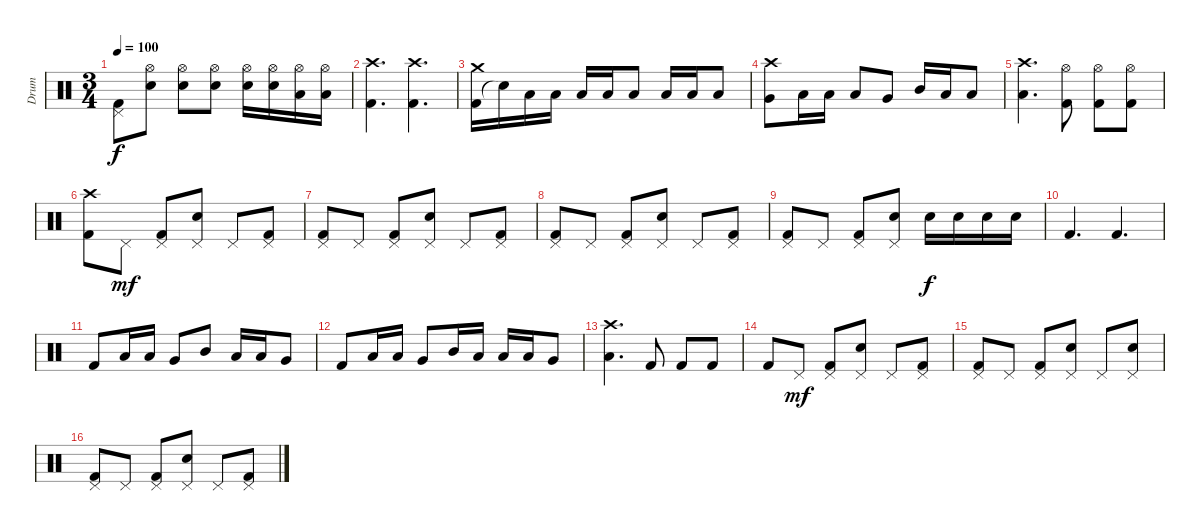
\track ("Drum" "Drum") {instrument percussion}
\staff {score}
\articulation defaults
\ts (3 4)
\tempo 100
\clef neutral
\ks c
("Kick (hit) 2" "Pedal Hi-Hat (hit)").8{dy f} ("Snare (hit) 2" "Hi-Hat (open)").8 ("Snare (hit) 2" "Hi-Hat (open)").8 ("Snare (hit) 2" "Hi-Hat (open)").8 ("Snare (hit) 2" "Hi-Hat (open)").16 ("Snare (hit) 2" "Hi-Hat (open)").16 ("Low Tom (hit)" "Hi-Hat (open)").16 ("Low Tom (hit)" "Hi-Hat (open)").16 |
("Kick (hit) 2" "Crash high (hit)").4{d} ("Kick (hit) 2" "Crash high (hit)").4{d} |
("Kick (hit) 2" "Crash medium (hit)").16 "Snare (hit)"{t}.16 "Low Tom (hit)".16 "Low Tom (hit)".16 "Low Tom (hit)".16 "Low Tom (hit)".16 "Low Tom (hit)".8 "Low Tom (hit)".16 "Low Tom (hit)".16 "Low Tom (hit)".8 |
("Very Low Tom (hit)" "Crash high (hit)").8 "Low Tom (hit)".16 "Low Tom (hit)".16 "Low Tom (hit)".8 "Very Low Tom (hit)".8 "Mid Tom (hit)".16 "Low Tom (hit)".16 "Low Tom (hit)".8 |
("Low Tom (hit)" "Crash high (hit)").4{d} ("Kick (hit) 2" "Hi-Hat (open)").8 ("Kick (hit) 2" "Hi-Hat (open)").8 ("Kick (hit) 2" "Hi-Hat (open)").8 |
("Kick (hit) 2" "Crash high (hit)").8 "Pedal Hi-Hat (hit)".8{dy mf} ("Kick (hit) 2" "Pedal Hi-Hat (hit)").8 ("Snare (hit) 2" "Pedal Hi-Hat (hit)").8 "Pedal Hi-Hat (hit)".8 ("Kick (hit) 2" "Pedal Hi-Hat (hit)").8 |
("Kick (hit) 2" "Pedal Hi-Hat (hit)").8 "Pedal Hi-Hat (hit)".8 ("Kick (hit) 2" "Pedal Hi-Hat (hit)").8 ("Snare (hit) 2" "Pedal Hi-Hat (hit)").8 "Pedal Hi-Hat (hit)".8 ("Kick (hit) 2" "Pedal Hi-Hat (hit)").8 |
("Kick (hit) 2" "Pedal Hi-Hat (hit)").8 "Pedal Hi-Hat (hit)".8 ("Kick (hit) 2" "Pedal Hi-Hat (hit)").8 ("Snare (hit) 2" "Pedal Hi-Hat (hit)").8 "Pedal Hi-Hat (hit)".8 ("Kick (hit) 2" "Pedal Hi-Hat (hit)").8 |
("Kick (hit) 2" "Pedal Hi-Hat (hit)").8 "Pedal Hi-Hat (hit)".8 ("Kick (hit) 2" "Pedal Hi-Hat (hit)").8 ("Snare (hit) 2" "Pedal Hi-Hat (hit)").8 "Snare (hit) 2".16{dy f} "Snare (hit) 2".16 "Snare (hit) 2".16 "Snare (hit) 2".16 |
"Kick (hit) 2".4{d} "Kick (hit) 2".4{d} |
"Kick (hit) 2".8 "Low Tom (hit)".16 "Low Tom (hit)".16 "Very Low Tom (hit)".8 "Mid Tom (hit)".8 "Low Tom (hit)".16 "Low Tom (hit)".16 "Very Low Tom (hit)".8 |
"Kick (hit) 2".8 "Low Tom (hit)".16 "Low Tom (hit)".16 "Very Low Tom (hit)".8 "Mid Tom (hit)".16 "Low Tom (hit)".16 "Low Tom (hit)".16 "Low Tom (hit)".16 "Very Low Tom (hit)".8 |
("Low Tom (hit)" "Crash high (hit)").4{d} "Kick (hit) 2".8 "Kick (hit) 2".8 "Kick (hit) 2".8 |
"Kick (hit) 2".8 "Pedal Hi-Hat (hit)".8{dy mf} ("Kick (hit) 2" "Pedal Hi-Hat (hit)").8 ("Snare (hit) 2" "Pedal Hi-Hat (hit)").8 "Pedal Hi-Hat (hit)".8 ("Kick (hit) 2" "Pedal Hi-Hat (hit)").8 |
("Kick (hit) 2" "Pedal Hi-Hat (hit)").8 "Pedal Hi-Hat (hit)".8 ("Kick (hit) 2" "Pedal Hi-Hat (hit)").8 ("Snare (hit) 2" "Pedal Hi-Hat (hit)").8 "Pedal Hi-Hat (hit)".8 ("Snare (hit) 2" "Pedal Hi-Hat (hit)").8 |
("Kick (hit) 2" "Pedal Hi-Hat (hit)").8 "Pedal Hi-Hat (hit)".8 ("Kick (hit) 2" "Pedal Hi-Hat (hit)").8 ("Snare (hit) 2" "Pedal Hi-Hat (hit)").8 "Pedal Hi-Hat (hit)".8 ("Kick (hit) 2" "Pedal Hi-Hat (hit)").8
